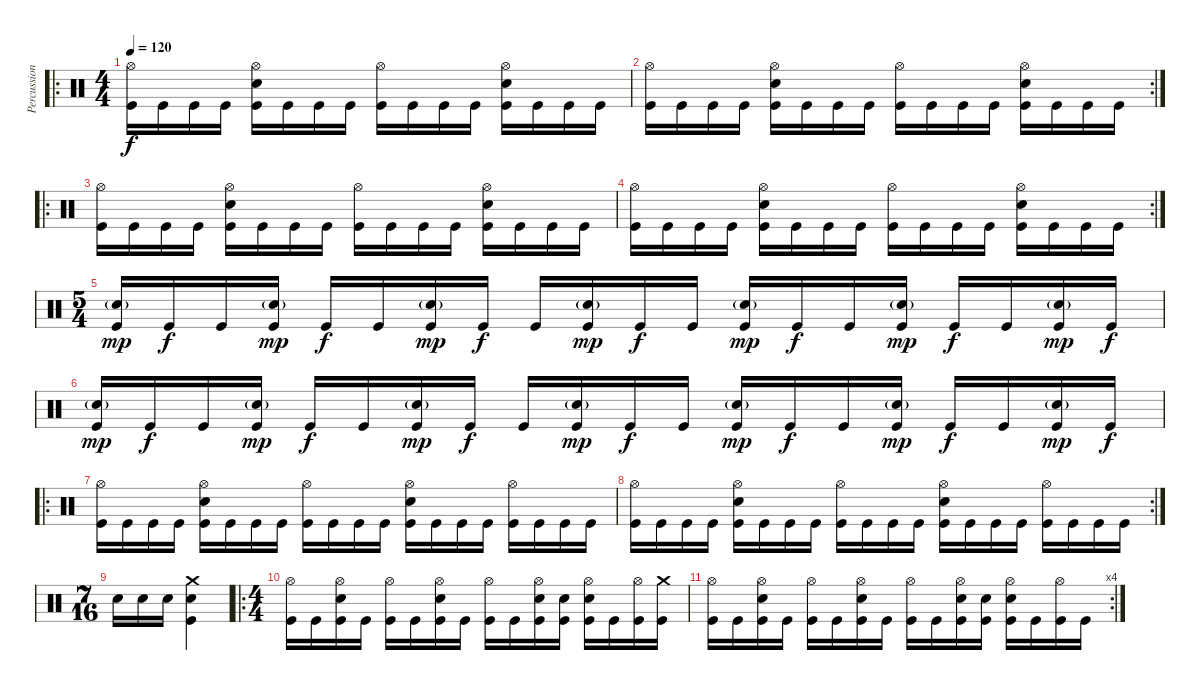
\track ("Percussion" "Percussion") {instrument percussion}
\staff {score}
\articulation defaults
\ro
\ts (4 4)
\tempo 120
\clef neutral
\ks c
("Hi-Hat (open)" "Kick (hit)").16{dy f} "Kick (hit)".16 "Kick (hit)".16 "Kick (hit)".16 ("Hi-Hat (open)" "Snare (hit) 2" "Kick (hit)").16 "Kick (hit)".16 "Kick (hit)".16 "Kick (hit)".16 ("Hi-Hat (open)" "Kick (hit)").16 "Kick (hit)".16 "Kick (hit)".16 "Kick (hit)".16 ("Hi-Hat (open)" "Snare (hit) 2" "Kick (hit)").16 "Kick (hit)".16 "Kick (hit)".16 "Kick (hit)".16 |
\rc 2
("Hi-Hat (open)" "Kick (hit)").16 "Kick (hit)".16 "Kick (hit)".16 "Kick (hit)".16 ("Hi-Hat (open)" "Snare (hit) 2" "Kick (hit)").16 "Kick (hit)".16 "Kick (hit)".16 "Kick (hit)".16 ("Hi-Hat (open)" "Kick (hit)").16 "Kick (hit)".16 "Kick (hit)".16 "Kick (hit)".16 ("Hi-Hat (open)" "Snare (hit) 2" "Kick (hit)").16 "Kick (hit)".16 "Kick (hit)".16 "Kick (hit)".16 |
\ro
("Hi-Hat (open)" "Kick (hit)").16 "Kick (hit)".16 "Kick (hit)".16 "Kick (hit)".16 ("Hi-Hat (open)" "Snare (hit) 2" "Kick (hit)").16 "Kick (hit)".16 "Kick (hit)".16 "Kick (hit)".16 ("Hi-Hat (open)" "Kick (hit)").16 "Kick (hit)".16 "Kick (hit)".16 "Kick (hit)".16 ("Hi-Hat (open)" "Snare (hit) 2" "Kick (hit)").16 "Kick (hit)".16 "Kick (hit)".16 "Kick (hit)".16 |
\rc 2
("Hi-Hat (open)" "Kick (hit)").16 "Kick (hit)".16 "Kick (hit)".16 "Kick (hit)".16 ("Hi-Hat (open)" "Snare (hit) 2" "Kick (hit)").16 "Kick (hit)".16 "Kick (hit)".16 "Kick (hit)".16 ("Hi-Hat (open)" "Kick (hit)").16 "Kick (hit)".16 "Kick (hit)".16 "Kick (hit)".16 ("Hi-Hat (open)" "Snare (hit) 2" "Kick (hit)").16 "Kick (hit)".16 "Kick (hit)".16 "Kick (hit)".16 |
\ts (5 4)
("Snare (hit) 2"{g} "Kick (hit)").16{dy mp} "Kick (hit)".16{dy f} "Kick (hit)".16 ("Snare (hit) 2"{g} "Kick (hit)").16{dy mp} "Kick (hit)".16{dy f} "Kick (hit)".16 ("Snare (hit) 2"{g} "Kick (hit)").16{dy mp} "Kick (hit)".16{dy f} "Kick (hit)".16 ("Snare (hit) 2"{g} "Kick (hit)").16{dy mp} "Kick (hit)".16{dy f} "Kick (hit)".16 ("Snare (hit) 2"{g} "Kick (hit)").16{dy mp} "Kick (hit)".16{dy f} "Kick (hit)".16 ("Snare (hit) 2"{g} "Kick (hit)").16{dy mp} "Kick (hit)".16{dy f} "Kick (hit)".16 ("Snare (hit) 2"{g} "Kick (hit)").16{dy mp} "Kick (hit)".16{dy f} |
("Snare (hit) 2"{g} "Kick (hit)").16{dy mp} "Kick (hit)".16{dy f} "Kick (hit)".16 ("Snare (hit) 2"{g} "Kick (hit)").16{dy mp} "Kick (hit)".16{dy f} "Kick (hit)".16 ("Snare (hit) 2"{g} "Kick (hit)").16{dy mp} "Kick (hit)".16{dy f} "Kick (hit)".16 ("Snare (hit) 2"{g} "Kick (hit)").16{dy mp} "Kick (hit)".16{dy f} "Kick (hit)".16 ("Snare (hit) 2"{g} "Kick (hit)").16{dy mp} "Kick (hit)".16{dy f} "Kick (hit)".16 ("Snare (hit) 2"{g} "Kick (hit)").16{dy mp} "Kick (hit)".16{dy f} "Kick (hit)".16 ("Snare (hit) 2"{g} "Kick (hit)").16{dy mp} "Kick (hit)".16{dy f} |
\ro
("Hi-Hat (open)" "Kick (hit)").16 "Kick (hit)".16 "Kick (hit)".16 "Kick (hit)".16 ("Hi-Hat (open)" "Snare (hit) 2" "Kick (hit)").16 "Kick (hit)".16 "Kick (hit)".16 "Kick (hit)".16 ("Hi-Hat (open)" "Kick (hit)").16 "Kick (hit)".16 "Kick (hit)".16 "Kick (hit)".16 ("Hi-Hat (open)" "Snare (hit) 2" "Kick (hit)").16 "Kick (hit)".16 "Kick (hit)".16 "Kick (hit)".16 ("Hi-Hat (open)" "Kick (hit)").16 "Kick (hit)".16 "Kick (hit)".16 "Kick (hit)".16 |
\rc 2
("Hi-Hat (open)" "Kick (hit)").16 "Kick (hit)".16 "Kick (hit)".16 "Kick (hit)".16 ("Hi-Hat (open)" "Snare (hit) 2" "Kick (hit)").16 "Kick (hit)".16 "Kick (hit)".16 "Kick (hit)".16 ("Hi-Hat (open)" "Kick (hit)").16 "Kick (hit)".16 "Kick (hit)".16 "Kick (hit)".16 ("Hi-Hat (open)" "Snare (hit) 2" "Kick (hit)").16 "Kick (hit)".16 "Kick (hit)".16 "Kick (hit)".16 ("Hi-Hat (open)" "Kick (hit)").16 "Kick (hit)".16 "Kick (hit)".16 "Kick (hit)".16 |
\ts (7 16)
"Snare (hit) 2".16 "Snare (hit) 2".16 "Snare (hit) 2".16 ("Crash medium (hit)" "Snare (hit) 2" "Kick (hit)").4 |
\ro
\ts (4 4)
("Hi-Hat (open)" "Kick (hit)").16 "Kick (hit)".16 ("Hi-Hat (open)" "Snare (hit) 2" "Kick (hit)").16 "Kick (hit)".16 ("Hi-Hat (open)" "Kick (hit)").16 "Kick (hit)".16 ("Hi-Hat (open)" "Snare (hit) 2" "Kick (hit)").16 "Kick (hit)".16 ("Hi-Hat (open)" "Kick (hit)").16 "Kick (hit)".16 ("Hi-Hat (open)" "Snare (hit) 2" "Kick (hit)").16 ("Snare (hit) 2" "Kick (hit)").16 ("Hi-Hat (open)" "Snare (hit) 2" "Kick (hit)").16 "Kick (hit)".16 ("Hi-Hat (open)" "Kick (hit)").16 ("Crash medium (hit)" "Kick (hit)").16 |
\rc 4
("Hi-Hat (open)" "Kick (hit)").16 "Kick (hit)".16 ("Hi-Hat (open)" "Snare (hit) 2" "Kick (hit)").16 "Kick (hit)".16 ("Hi-Hat (open)" "Kick (hit)").16 "Kick (hit)".16 ("Hi-Hat (open)" "Snare (hit) 2" "Kick (hit)").16 "Kick (hit)".16 ("Hi-Hat (open)" "Kick (hit)").16 "Kick (hit)".16 ("Hi-Hat (open)" "Snare (hit) 2" "Kick (hit)").16 ("Snare (hit) 2" "Kick (hit)").16 ("Hi-Hat (open)" "Snare (hit) 2" "Kick (hit)").16 "Kick (hit)".16 ("Hi-Hat (open)" "Kick (hit)").16 "Kick (hit)".16
